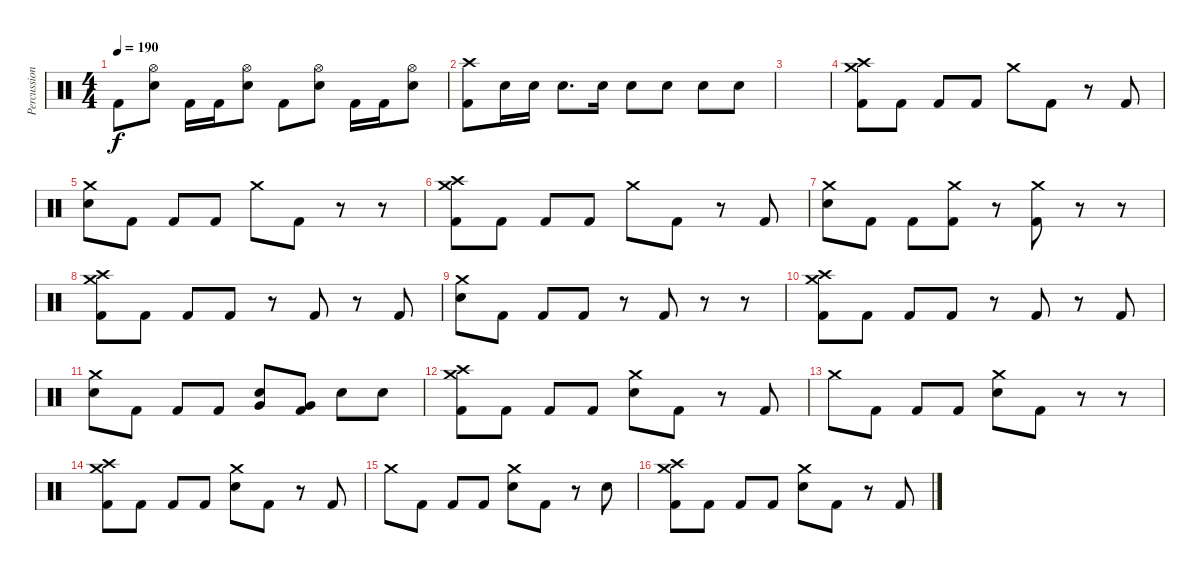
\track ("Percussion" "Percussion") {instrument percussion}
\staff {score}
\articulation defaults
\ts (4 4)
\tempo 190
\clef neutral
\ks c "Kick (hit) 2".8{dy f}
("Hi-Hat (open)" "Snare (hit) 2").8 "Kick (hit) 2".16 "Kick (hit) 2".16 ("Hi-Hat (open)" "Snare (hit) 2").8 "Kick (hit) 2".8 ("Hi-Hat (open)" "Snare (hit) 2").8 "Kick (hit) 2".16 "Kick (hit) 2".16 ("Hi-Hat (open)" "Snare (hit) 2").8 |
("Crash high (hit)" "Kick (hit) 2").8 "Snare (hit) 2".16 "Snare (hit) 2".16 "Snare (hit) 2".8{d} "Snare (hit) 2".16 "Snare (hit) 2".8 "Snare (hit) 2".8 "Snare (hit) 2".8 "Snare (hit) 2".8 |
|
("Crash medium (hit)" "Crash high (hit)" "Kick (hit) 2").8 "Kick (hit) 2".8 "Kick (hit) 2".8 "Kick (hit) 2".8 "Crash medium (hit)".8 "Kick (hit) 2".8 r.8 "Kick (hit) 2".8 |
("Crash medium (hit)" "Snare (hit) 2").8 "Kick (hit) 2".8 "Kick (hit) 2".8 "Kick (hit) 2".8 "Crash medium (hit)".8 "Kick (hit) 2".8 r.8 r.8 |
("Crash medium (hit)" "Crash high (hit)" "Kick (hit) 2").8 "Kick (hit) 2".8 "Kick (hit) 2".8 "Kick (hit) 2".8 "Crash medium (hit)".8 "Kick (hit) 2".8 r.8 "Kick (hit) 2".8 |
("Crash medium (hit)" "Snare (hit) 2").8 "Kick (hit) 2".8 "Kick (hit) 2".8 ("Crash medium (hit)" "Kick (hit) 2").8 r.8 ("Crash medium (hit)" "Kick (hit) 2").8 r.8 r.8 |
("Crash medium (hit)" "Crash high (hit)" "Kick (hit) 2").8 "Kick (hit) 2".8 "Kick (hit) 2".8 "Kick (hit) 2".8 r.8 "Kick (hit) 2".8 r.8 "Kick (hit) 2".8 |
("Crash medium (hit)" "Snare (hit) 2").8 "Kick (hit) 2".8 "Kick (hit) 2".8 "Kick (hit) 2".8 r.8 "Kick (hit) 2".8 r.8 r.8 |
("Crash medium (hit)" "Crash high (hit)" "Kick (hit) 2").8 "Kick (hit) 2".8 "Kick (hit) 2".8 "Kick (hit) 2".8 r.8 "Kick (hit) 2".8 r.8 "Kick (hit) 2".8 |
("Crash medium (hit)" "Snare (hit) 2").8 "Kick (hit) 2".8 "Kick (hit) 2".8 "Kick (hit) 2".8 ("Very Low Tom (hit)" "Snare (hit) 2").8 ("Very Low Tom (hit)" "Kick (hit) 2").8 "Snare (hit) 2".8 "Snare (hit) 2".8 |
("Crash medium (hit)" "Crash high (hit)" "Kick (hit) 2").8 "Kick (hit) 2".8 "Kick (hit) 2".8 "Kick (hit) 2".8 ("Crash medium (hit)" "Snare (hit) 2").8 "Kick (hit) 2".8 r.8 "Kick (hit) 2".8 |
"Crash medium (hit)".8 "Kick (hit) 2".8 "Kick (hit) 2".8 "Kick (hit) 2".8 ("Crash medium (hit)" "Snare (hit) 2").8 "Kick (hit) 2".8 r.8 r.8 |
("Crash medium (hit)" "Crash high (hit)" "Kick (hit) 2").8 "Kick (hit) 2".8 "Kick (hit) 2".8 "Kick (hit) 2".8 ("Crash medium (hit)" "Snare (hit) 2").8 "Kick (hit) 2".8 r.8 "Kick (hit) 2".8 |
"Crash medium (hit)".8 "Kick (hit) 2".8 "Kick (hit) 2".8 "Kick (hit) 2".8 ("Crash medium (hit)" "Snare (hit) 2").8 "Kick (hit) 2".8 r.8 "Snare (hit) 2".8 |
("Crash medium (hit)" "Crash high (hit)" "Kick (hit) 2").8 "Kick (hit) 2".8 "Kick (hit) 2".8 "Kick (hit) 2".8 ("Crash medium (hit)" "Snare (hit) 2").8 "Kick (hit) 2".8 r.8 "Kick (hit) 2".8
